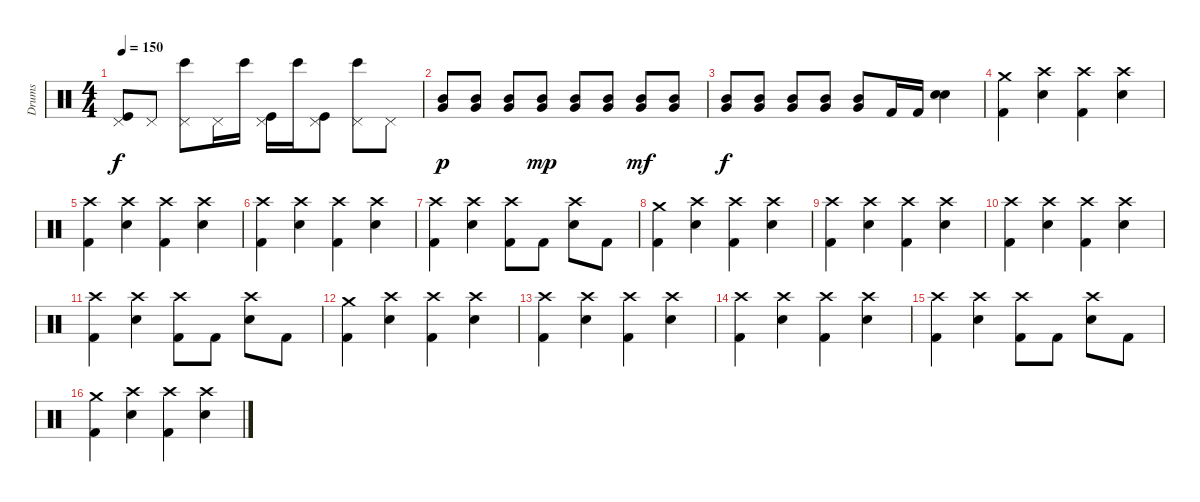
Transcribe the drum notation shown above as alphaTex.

\track ("Drums" "Drums") {instrument percussion}
\staff {score}
\articulation defaults
\ts (4 4)
\tempo 150
\clef neutral
\ks c
("Kick (hit)" "Pedal Hi-Hat (hit)").8{dy f} "Pedal Hi-Hat (hit)".8 ("Bongo High (hit)" "Pedal Hi-Hat (hit)").8 "Pedal Hi-Hat (hit)".16 "Bongo High (hit)".16 ("Kick (hit)" "Pedal Hi-Hat (hit)").16 "Bongo High (hit)".16 ("Kick (hit)" "Pedal Hi-Hat (hit)").8 ("Bongo High (hit)" "Pedal Hi-Hat (hit)").8 "Pedal Hi-Hat (hit)".8 |
("Very Low Tom (hit)" "Mid Tom (hit)").8{dy p volume 16} ("Very Low Tom (hit)" "Mid Tom (hit)").8 ("Very Low Tom (hit)" "Mid Tom (hit)").8 ("Very Low Tom (hit)" "Mid Tom (hit)").8{dy mp} ("Very Low Tom (hit)" "Mid Tom (hit)").8 ("Very Low Tom (hit)" "Mid Tom (hit)").8 ("Very Low Tom (hit)" "Mid Tom (hit)").8{dy mf} ("Very Low Tom (hit)" "Mid Tom (hit)").8 |
("Very Low Tom (hit)" "Mid Tom (hit)").8{dy f} ("Very Low Tom (hit)" "Mid Tom (hit)").8 ("Very Low Tom (hit)" "Mid Tom (hit)").8 ("Very Low Tom (hit)" "Mid Tom (hit)").8 ("Very Low Tom (hit)" "Mid Tom (hit)").8 "Kick (hit) 2".16 "Kick (hit) 2".16 ("Electric Snare (hit)" "Electric Snare (hit)").4 |
("Crash medium (hit)" "Kick (hit) 2").4 ("Crash high (hit)" "Electric Snare (hit)").4 ("Crash high (hit)" "Kick (hit) 2").4 ("Crash high (hit)" "Electric Snare (hit)").4 |
("Crash high (hit)" "Kick (hit) 2").4 ("Crash high (hit)" "Electric Snare (hit)").4 ("Crash high (hit)" "Kick (hit) 2").4 ("Crash high (hit)" "Electric Snare (hit)").4 |
("Crash high (hit)" "Kick (hit) 2").4 ("Crash high (hit)" "Electric Snare (hit)").4 ("Crash high (hit)" "Kick (hit) 2").4 ("Crash high (hit)" "Electric Snare (hit)").4 |
("Crash high (hit)" "Kick (hit) 2").4 ("Crash high (hit)" "Electric Snare (hit)").4 ("Crash high (hit)" "Kick (hit) 2").8 "Kick (hit) 2".8 ("Crash high (hit)" "Electric Snare (hit)").8 "Kick (hit) 2".8 |
("Crash medium (hit)" "Kick (hit) 2").4 ("Crash high (hit)" "Electric Snare (hit)").4 ("Crash high (hit)" "Kick (hit) 2").4 ("Crash high (hit)" "Electric Snare (hit)").4 |
("Crash high (hit)" "Kick (hit) 2").4 ("Crash high (hit)" "Electric Snare (hit)").4 ("Crash high (hit)" "Kick (hit) 2").4 ("Crash high (hit)" "Electric Snare (hit)").4 |
("Crash high (hit)" "Kick (hit) 2").4 ("Crash high (hit)" "Electric Snare (hit)").4 ("Crash high (hit)" "Kick (hit) 2").4 ("Crash high (hit)" "Electric Snare (hit)").4 |
("Crash high (hit)" "Kick (hit) 2").4 ("Crash high (hit)" "Electric Snare (hit)").4 ("Crash high (hit)" "Kick (hit) 2").8 "Kick (hit) 2".8 ("Crash high (hit)" "Electric Snare (hit)").8 "Kick (hit) 2".8 |
("Crash medium (hit)" "Kick (hit) 2").4 ("Crash high (hit)" "Electric Snare (hit)").4 ("Crash high (hit)" "Kick (hit) 2").4 ("Crash high (hit)" "Electric Snare (hit)").4 |
("Crash high (hit)" "Kick (hit) 2").4 ("Crash high (hit)" "Electric Snare (hit)").4 ("Crash high (hit)" "Kick (hit) 2").4 ("Crash high (hit)" "Electric Snare (hit)").4 |
("Crash high (hit)" "Kick (hit) 2").4 ("Crash high (hit)" "Electric Snare (hit)").4 ("Crash high (hit)" "Kick (hit) 2").4 ("Crash high (hit)" "Electric Snare (hit)").4 |
("Crash high (hit)" "Kick (hit) 2").4 ("Crash high (hit)" "Electric Snare (hit)").4 ("Crash high (hit)" "Kick (hit) 2").8 "Kick (hit) 2".8 ("Crash high (hit)" "Electric Snare (hit)").8 "Kick (hit) 2".8 |
("Crash medium (hit)" "Kick (hit) 2").4 ("Crash high (hit)" "Electric Snare (hit)").4 ("Crash high (hit)" "Kick (hit) 2").4 ("Crash high (hit)" "Electric Snare (hit)").4
